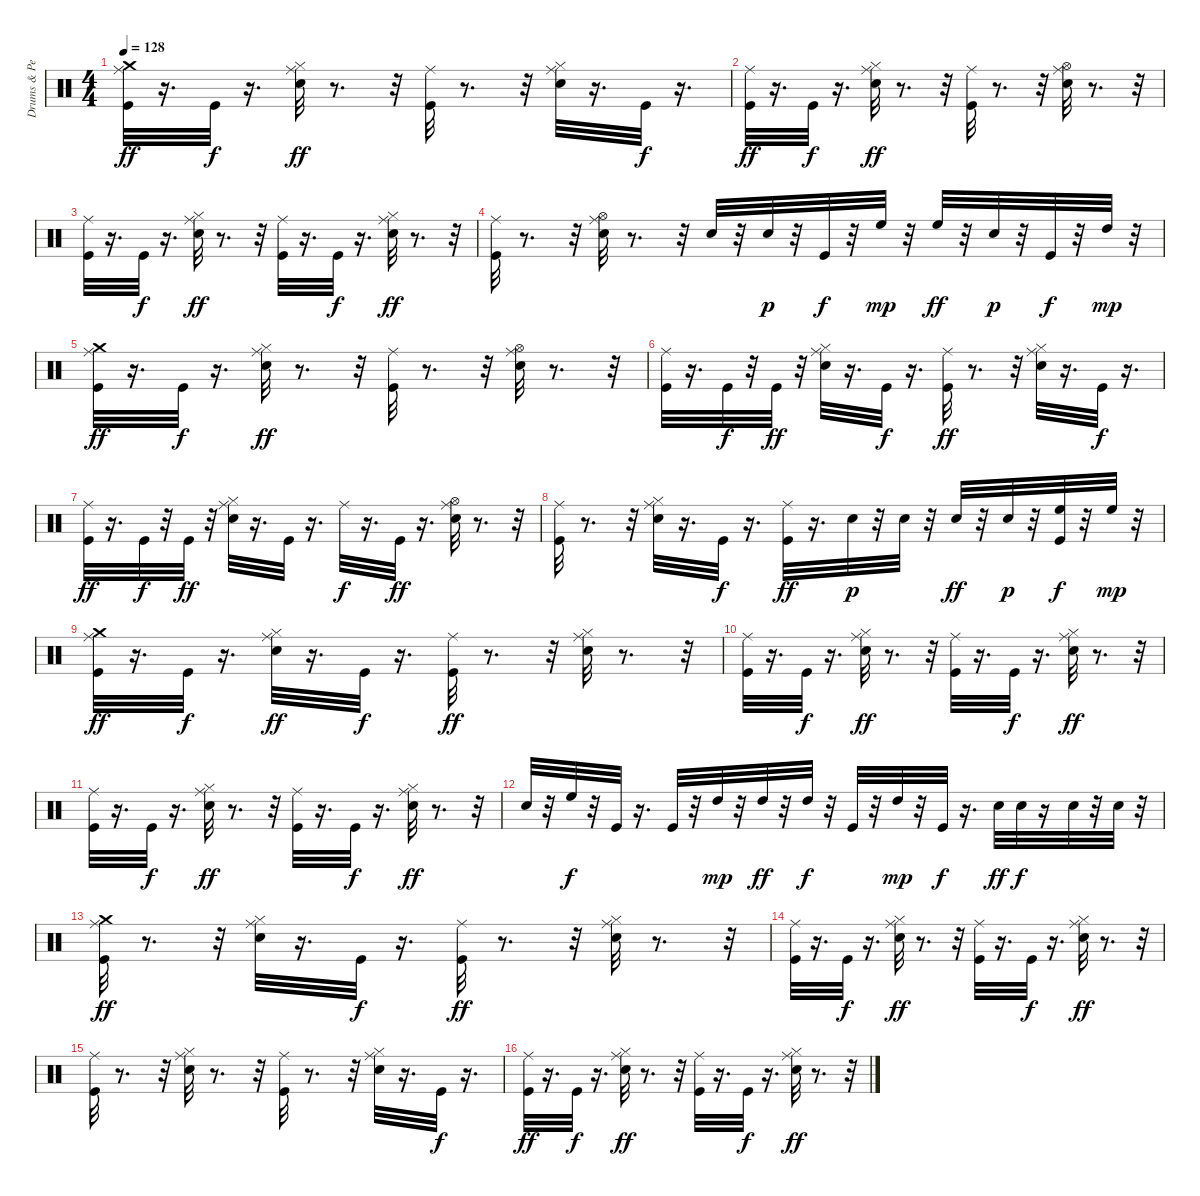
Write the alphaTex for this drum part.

\track ("Drums & Percussion" "Drums & Pe") {instrument percussion}
\staff {score}
\articulation defaults
\ts (4 4)
\tempo 128
\clef neutral
\ks c
("Crash medium (hit)" "Kick (hit)" "Ride (middle)").32{dy ff} r.16{d} "Kick (hit)".32{dy f} r.16{d} ("Hi-Hat (closed)" "Electric Snare (hit)" "Ride (middle)").32{dy ff} r.8{d} r.32 ("Kick (hit)" "Ride (middle)").32 r.8{d} r.32 ("Hi-Hat (closed)" "Electric Snare (hit)" "Ride (middle)").32 r.16{d} "Kick (hit)".32{dy f} r.16{d} |
("Kick (hit)" "Ride (middle)").32{dy ff} r.16{d} "Kick (hit)".32{dy f} r.16{d} ("Hi-Hat (closed)" "Electric Snare (hit)" "Ride (middle)").32{dy ff} r.8{d} r.32 ("Kick (hit)" "Ride (middle)").32 r.8{d} r.32 ("Hi-Hat (open)" "Electric Snare (hit)" "Ride (middle)").32 r.8{d} r.32 |
("Kick (hit)" "Ride (middle)").32 r.16{d} "Kick (hit)".32{dy f} r.16{d} ("Hi-Hat (closed)" "Electric Snare (hit)" "Ride (middle)").32{dy ff} r.8{d} r.32 ("Kick (hit)" "Ride (middle)").32 r.16{d} "Kick (hit)".32{dy f} r.16{d} ("Hi-Hat (closed)" "Electric Snare (hit)" "Ride (middle)").32{dy ff} r.8{d} r.32 |
("Kick (hit)" "Ride (middle)").32 r.8{d} r.32 ("Hi-Hat (open)" "Electric Snare (hit)" "Ride (middle)").32 r.8{d} r.32 "Electric Snare (hit)".32 r.32 "Electric Snare (hit)".32{dy p} r.32 "Kick (hit)".32{dy f} r.32 "High Floor Tom (hit)".32{dy mp} r.32 "High Floor Tom (hit)".32{dy ff} r.32 "Electric Snare (hit)".32{dy p} r.32 "Kick (hit)".32{dy f} r.32 "High Tom (hit)".32{dy mp} r.32 |
("Crash medium (hit)" "Kick (hit)" "Ride (middle)").32{dy ff} r.16{d} "Kick (hit)".32{dy f} r.16{d} ("Hi-Hat (closed)" "Electric Snare (hit)" "Ride (middle)").32{dy ff} r.8{d} r.32 ("Kick (hit)" "Ride (middle)").32 r.8{d} r.32 ("Hi-Hat (open)" "Electric Snare (hit)" "Ride (middle)").32 r.8{d} r.32 |
("Kick (hit)" "Ride (middle)").32 r.16{d} "Kick (hit)".32{dy f} r.32 "Kick (hit)".32{dy ff} r.32 ("Hi-Hat (closed)" "Electric Snare (hit)" "Ride (middle)").32 r.16{d} "Kick (hit)".32{dy f} r.16{d} ("Kick (hit)" "Ride (middle)").32{dy ff} r.8{d} r.32 ("Hi-Hat (closed)" "Electric Snare (hit)" "Ride (middle)").32 r.16{d} "Kick (hit)".32{dy f} r.16{d} |
("Kick (hit)" "Ride (middle)").32{dy ff} r.16{d} "Kick (hit)".32{dy f} r.32 "Kick (hit)".32{dy ff} r.32 ("Hi-Hat (closed)" "Electric Snare (hit)" "Ride (middle)").32 r.16{d} "Kick (hit)".32 r.16{d} "Ride (middle)".32{dy f} r.16{d} "Kick (hit)".32{dy ff} r.16{d} ("Hi-Hat (open)" "Electric Snare (hit)" "Ride (middle)").32 r.8{d} r.32 |
("Kick (hit)" "Ride (middle)").32 r.8{d} r.32 ("Hi-Hat (closed)" "Electric Snare (hit)" "Ride (middle)").32 r.16{d} "Kick (hit)".32{dy f} r.16{d} ("Kick (hit)" "Ride (middle)").32{dy ff} r.16{d} "Electric Snare (hit)".32{dy p} r.32 "Electric Snare (hit)".32 r.32 "Electric Snare (hit)".32{dy ff} r.32 "Electric Snare (hit)".32{dy p} r.32 ("Kick (hit)" "High Floor Tom (hit)").32{dy f} r.32 "High Floor Tom (hit)".32{dy mp} r.32 |
("Crash medium (hit)" "Kick (hit)" "Ride (middle)").32{dy ff} r.16{d} "Kick (hit)".32{dy f} r.16{d} ("Hi-Hat (closed)" "Electric Snare (hit)" "Ride (middle)").32{dy ff} r.16{d} "Kick (hit)".32{dy f} r.16{d} ("Kick (hit)" "Ride (middle)").32{dy ff} r.8{d} r.32 ("Hi-Hat (closed)" "Electric Snare (hit)" "Ride (middle)").32 r.8{d} r.32 |
("Kick (hit)" "Ride (middle)").32 r.16{d} "Kick (hit)".32{dy f} r.16{d} ("Hi-Hat (closed)" "Electric Snare (hit)" "Ride (middle)").32{dy ff} r.8{d} r.32 ("Kick (hit)" "Ride (middle)").32 r.16{d} "Kick (hit)".32{dy f} r.16{d} ("Hi-Hat (closed)" "Electric Snare (hit)" "Ride (middle)").32{dy ff} r.8{d} r.32 |
("Kick (hit)" "Ride (middle)").32 r.16{d} "Kick (hit)".32{dy f} r.16{d} ("Hi-Hat (closed)" "Electric Snare (hit)" "Ride (middle)").32{dy ff} r.8{d} r.32 ("Kick (hit)" "Ride (middle)").32 r.16{d} "Kick (hit)".32{dy f} r.16{d} ("Hi-Hat (closed)" "Electric Snare (hit)" "Ride (middle)").32{dy ff} r.8{d} r.32 |
"Electric Snare (hit)".32 r.32 "High Floor Tom (hit)".32{dy f} r.32 "Kick (hit)".32 r.16{d} "Kick (hit)".32 r.32 "High Tom (hit)".32{dy mp} r.32 "High Tom (hit)".32{dy ff} r.32 "High Tom (hit)".32{dy f} r.32 "Kick (hit)".32 r.32 "High Tom (hit)".32{dy mp} r.32 "Kick (hit)".32{dy f} r.16{d} "Electric Snare (hit)".32{dy ff} "Electric Snare (hit)".32{dy f} r.16 "Electric Snare (hit)".32 r.32 "Electric Snare (hit)".32 r.32 |
("Crash medium (hit)" "Kick (hit)" "Ride (middle)").32{dy ff} r.8{d} r.32 ("Hi-Hat (closed)" "Electric Snare (hit)" "Ride (middle)").32 r.16{d} "Kick (hit)".32{dy f} r.16{d} ("Kick (hit)" "Ride (middle)").32{dy ff} r.8{d} r.32 ("Hi-Hat (closed)" "Electric Snare (hit)" "Ride (middle)").32 r.8{d} r.32 |
("Kick (hit)" "Ride (middle)").32 r.16{d} "Kick (hit)".32{dy f} r.16{d} ("Hi-Hat (closed)" "Electric Snare (hit)" "Ride (middle)").32{dy ff} r.8{d} r.32 ("Kick (hit)" "Ride (middle)").32 r.16{d} "Kick (hit)".32{dy f} r.16{d} ("Hi-Hat (closed)" "Electric Snare (hit)" "Ride (middle)").32{dy ff} r.8{d} r.32 |
("Kick (hit)" "Ride (middle)").32 r.8{d} r.32 ("Hi-Hat (closed)" "Electric Snare (hit)" "Ride (middle)").32 r.8{d} r.32 ("Kick (hit)" "Ride (middle)").32 r.8{d} r.32 ("Hi-Hat (closed)" "Electric Snare (hit)" "Ride (middle)").32 r.16{d} "Kick (hit)".32{dy f} r.16{d} |
("Kick (hit)" "Ride (middle)").32{dy ff} r.16{d} "Kick (hit)".32{dy f} r.16{d} ("Hi-Hat (closed)" "Electric Snare (hit)" "Ride (middle)").32{dy ff} r.8{d} r.32 ("Kick (hit)" "Ride (middle)").32 r.16{d} "Kick (hit)".32{dy f} r.16{d} ("Hi-Hat (closed)" "Electric Snare (hit)" "Ride (middle)").32{dy ff} r.8{d} r.32
